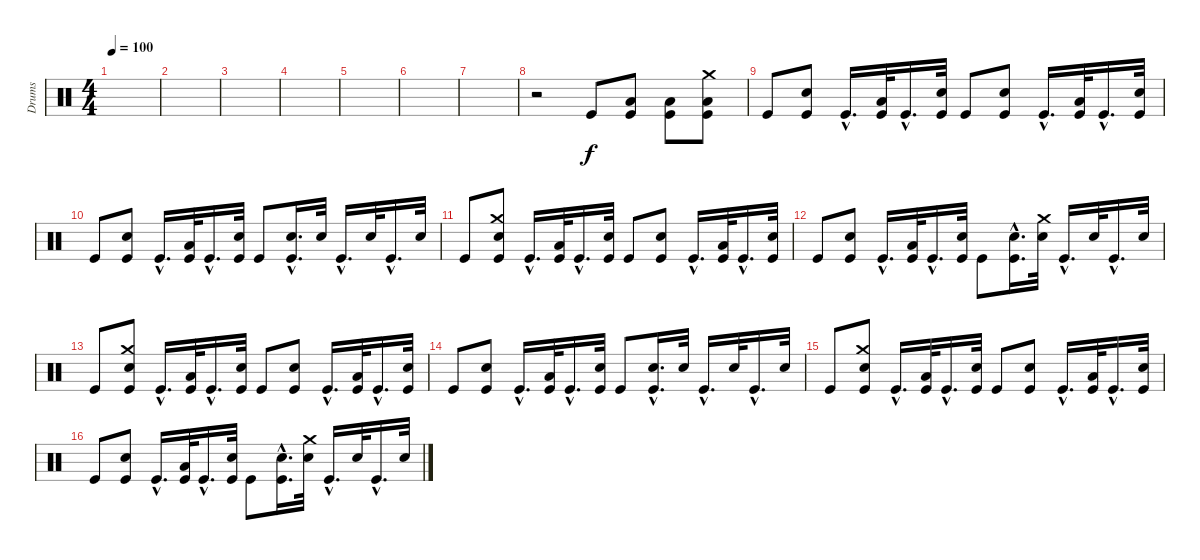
\track ("Drums" "Drums") {instrument percussion}
\staff {score}
\articulation defaults
\ts (4 4)
\tempo 100
\clef neutral
\ks c
|
|
|
|
|
|
|
r.2 "Kick (hit)".8 ("Low Floor Tom (hit)" "Kick (hit)").8 ("Low Floor Tom (hit)" "Kick (hit)").8 ("Crash medium (hit)" "Low Floor Tom (hit)" "Kick (hit)").8 |
"Kick (hit)".8 ("Electric Snare (hit)" "Kick (hit)").8 "Kick (hit)"{hac}.16{d} ("Low Floor Tom (hit)" "Kick (hit)").32 "Kick (hit)"{hac}.16{d} ("Electric Snare (hit)" "Kick (hit)").32 "Kick (hit)".8 ("Electric Snare (hit)" "Kick (hit)").8 "Kick (hit)"{hac}.16{d} ("Low Floor Tom (hit)" "Kick (hit)").32 "Kick (hit)"{hac}.16{d} ("Electric Snare (hit)" "Kick (hit)").32 |
"Kick (hit)".8 ("Electric Snare (hit)" "Kick (hit)").8 "Kick (hit)"{hac}.16{d} ("Low Floor Tom (hit)" "Kick (hit)").32 "Kick (hit)"{hac}.16{d} ("Electric Snare (hit)" "Kick (hit)").32 "Kick (hit)".8 ("Electric Snare (hit)"{hac} "Kick (hit)"{hac}).16{d} "Electric Snare (hit)".32 "Kick (hit)"{hac}.16{d} "Electric Snare (hit)".32 "Kick (hit)"{hac}.16{d} "Electric Snare (hit)".32 |
"Kick (hit)".8 ("Crash medium (hit)" "Electric Snare (hit)" "Kick (hit)").8 "Kick (hit)"{hac}.16{d} ("Low Floor Tom (hit)" "Kick (hit)").32 "Kick (hit)"{hac}.16{d} ("Electric Snare (hit)" "Kick (hit)").32 "Kick (hit)".8 ("Electric Snare (hit)" "Kick (hit)").8 "Kick (hit)"{hac}.16{d} ("Low Floor Tom (hit)" "Kick (hit)").32 "Kick (hit)"{hac}.16{d} ("Electric Snare (hit)" "Kick (hit)").32 |
"Kick (hit)".8 ("Electric Snare (hit)" "Kick (hit)").8 "Kick (hit)"{hac}.16{d} ("Low Floor Tom (hit)" "Kick (hit)").32 "Kick (hit)"{hac}.16{d} ("Electric Snare (hit)" "Kick (hit)").32 "Kick (hit)".8 ("Electric Snare (hit)"{hac} "Kick (hit)"{hac}).16{d} ("Crash medium (hit)" "Electric Snare (hit)").32 "Kick (hit)"{hac}.16{d} "Electric Snare (hit)".32 "Kick (hit)"{hac}.16{d} "Electric Snare (hit)".32 |
"Kick (hit)".8 ("Crash medium (hit)" "Electric Snare (hit)" "Kick (hit)").8 "Kick (hit)"{hac}.16{d} ("Low Floor Tom (hit)" "Kick (hit)").32 "Kick (hit)"{hac}.16{d} ("Electric Snare (hit)" "Kick (hit)").32 "Kick (hit)".8 ("Electric Snare (hit)" "Kick (hit)").8 "Kick (hit)"{hac}.16{d} ("Low Floor Tom (hit)" "Kick (hit)").32 "Kick (hit)"{hac}.16{d} ("Electric Snare (hit)" "Kick (hit)").32 |
"Kick (hit)".8 ("Electric Snare (hit)" "Kick (hit)").8 "Kick (hit)"{hac}.16{d} ("Low Floor Tom (hit)" "Kick (hit)").32 "Kick (hit)"{hac}.16{d} ("Electric Snare (hit)" "Kick (hit)").32 "Kick (hit)".8 ("Electric Snare (hit)"{hac} "Kick (hit)"{hac}).16{d} "Electric Snare (hit)".32 "Kick (hit)"{hac}.16{d} "Electric Snare (hit)".32 "Kick (hit)"{hac}.16{d} "Electric Snare (hit)".32 |
"Kick (hit)".8 ("Crash medium (hit)" "Electric Snare (hit)" "Kick (hit)").8 "Kick (hit)"{hac}.16{d} ("Low Floor Tom (hit)" "Kick (hit)").32 "Kick (hit)"{hac}.16{d} ("Electric Snare (hit)" "Kick (hit)").32 "Kick (hit)".8 ("Electric Snare (hit)" "Kick (hit)").8 "Kick (hit)"{hac}.16{d} ("Low Floor Tom (hit)" "Kick (hit)").32 "Kick (hit)"{hac}.16{d} ("Electric Snare (hit)" "Kick (hit)").32 |
"Kick (hit)".8 ("Electric Snare (hit)" "Kick (hit)").8 "Kick (hit)"{hac}.16{d} ("Low Floor Tom (hit)" "Kick (hit)").32 "Kick (hit)"{hac}.16{d} ("Electric Snare (hit)" "Kick (hit)").32 "Kick (hit)".8 ("Electric Snare (hit)"{hac} "Kick (hit)"{hac}).16{d} ("Crash medium (hit)" "Electric Snare (hit)").32 "Kick (hit)"{hac}.16{d} "Electric Snare (hit)".32 "Kick (hit)"{hac}.16{d} "Electric Snare (hit)".32
